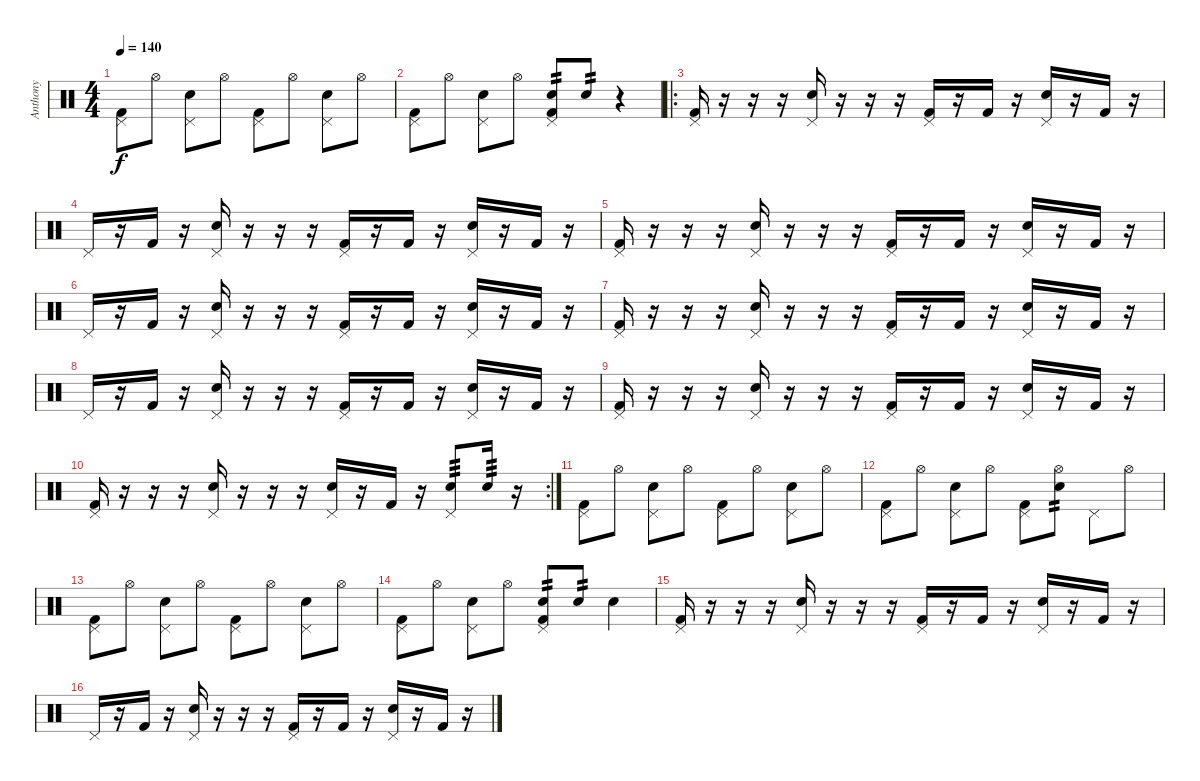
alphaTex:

\track ("Anthony" "Anthony") {instrument percussion}
\staff {score}
\articulation defaults
\ts (4 4)
\tempo 140
\clef neutral
\ks c
("Pedal Hi-Hat (hit)" "Kick (hit) 2").8{dy f} "Hi-Hat (open)".8 ("Pedal Hi-Hat (hit)" "Snare (hit) 2").8 "Hi-Hat (open)".8 ("Pedal Hi-Hat (hit)" "Kick (hit) 2").8 "Hi-Hat (open)".8 ("Pedal Hi-Hat (hit)" "Snare (hit) 2").8 "Hi-Hat (open)".8 |
("Pedal Hi-Hat (hit)" "Kick (hit) 2").8 "Hi-Hat (open)".8 ("Pedal Hi-Hat (hit)" "Snare (hit) 2").8 "Hi-Hat (open)".8 ("Pedal Hi-Hat (hit)" "Snare (hit) 2" "Kick (hit) 2").8{tp 2} "Snare (hit) 2".8{tp 2} r.4 |
\ro
("Pedal Hi-Hat (hit)" "Kick (hit) 2").16 r.16 r.16 r.16 ("Pedal Hi-Hat (hit)" "Snare (hit) 2").16 r.16 r.16 r.16 ("Pedal Hi-Hat (hit)" "Kick (hit) 2").16 r.16 "Kick (hit) 2".16 r.16 ("Pedal Hi-Hat (hit)" "Snare (hit) 2").16 r.16 "Kick (hit) 2".16 r.16 |
"Pedal Hi-Hat (hit)".16 r.16 "Kick (hit) 2".16 r.16 ("Pedal Hi-Hat (hit)" "Snare (hit) 2").16 r.16 r.16 r.16 ("Pedal Hi-Hat (hit)" "Kick (hit) 2").16 r.16 "Kick (hit) 2".16 r.16 ("Pedal Hi-Hat (hit)" "Snare (hit) 2").16 r.16 "Kick (hit) 2".16 r.16 |
("Pedal Hi-Hat (hit)" "Kick (hit) 2").16 r.16 r.16 r.16 ("Pedal Hi-Hat (hit)" "Snare (hit) 2").16 r.16 r.16 r.16 ("Pedal Hi-Hat (hit)" "Kick (hit) 2").16 r.16 "Kick (hit) 2".16 r.16 ("Pedal Hi-Hat (hit)" "Snare (hit) 2").16 r.16 "Kick (hit) 2".16 r.16 |
"Pedal Hi-Hat (hit)".16 r.16 "Kick (hit) 2".16 r.16 ("Pedal Hi-Hat (hit)" "Snare (hit) 2").16 r.16 r.16 r.16 ("Pedal Hi-Hat (hit)" "Kick (hit) 2").16 r.16 "Kick (hit) 2".16 r.16 ("Pedal Hi-Hat (hit)" "Snare (hit) 2").16 r.16 "Kick (hit) 2".16 r.16 |
("Pedal Hi-Hat (hit)" "Kick (hit) 2").16 r.16 r.16 r.16 ("Pedal Hi-Hat (hit)" "Snare (hit) 2").16 r.16 r.16 r.16 ("Pedal Hi-Hat (hit)" "Kick (hit) 2").16 r.16 "Kick (hit) 2".16 r.16 ("Pedal Hi-Hat (hit)" "Snare (hit) 2").16 r.16 "Kick (hit) 2".16 r.16 |
"Pedal Hi-Hat (hit)".16 r.16 "Kick (hit) 2".16 r.16 ("Pedal Hi-Hat (hit)" "Snare (hit) 2").16 r.16 r.16 r.16 ("Pedal Hi-Hat (hit)" "Kick (hit) 2").16 r.16 "Kick (hit) 2".16 r.16 ("Pedal Hi-Hat (hit)" "Snare (hit) 2").16 r.16 "Kick (hit) 2".16 r.16 |
("Pedal Hi-Hat (hit)" "Kick (hit) 2").16 r.16 r.16 r.16 ("Pedal Hi-Hat (hit)" "Snare (hit) 2").16 r.16 r.16 r.16 ("Pedal Hi-Hat (hit)" "Kick (hit) 2").16 r.16 "Kick (hit) 2".16 r.16 ("Pedal Hi-Hat (hit)" "Snare (hit) 2").16 r.16 "Kick (hit) 2".16 r.16 |
\rc 2
("Pedal Hi-Hat (hit)" "Kick (hit) 2").16 r.16 r.16 r.16 ("Pedal Hi-Hat (hit)" "Snare (hit) 2").16 r.16 r.16 r.16 ("Pedal Hi-Hat (hit)" "Snare (hit) 2").16 r.16 "Kick (hit) 2".16 r.16 ("Pedal Hi-Hat (hit)" "Snare (hit) 2").8{tp 3} "Snare (hit) 2".16{tp 3} r.16 |
("Pedal Hi-Hat (hit)" "Kick (hit) 2").8 "Hi-Hat (open)".8 ("Pedal Hi-Hat (hit)" "Snare (hit) 2").8 "Hi-Hat (open)".8 ("Pedal Hi-Hat (hit)" "Kick (hit) 2").8 "Hi-Hat (open)".8 ("Pedal Hi-Hat (hit)" "Snare (hit) 2").8 "Hi-Hat (open)".8 |
("Pedal Hi-Hat (hit)" "Kick (hit) 2").8 "Hi-Hat (open)".8 ("Pedal Hi-Hat (hit)" "Snare (hit) 2").8 "Hi-Hat (open)".8 ("Pedal Hi-Hat (hit)" "Kick (hit) 2").8 ("Hi-Hat (open)" "Snare (hit) 2").8{tp 2} "Pedal Hi-Hat (hit)".8 "Hi-Hat (open)".8 |
("Pedal Hi-Hat (hit)" "Kick (hit) 2").8 "Hi-Hat (open)".8 ("Pedal Hi-Hat (hit)" "Snare (hit) 2").8 "Hi-Hat (open)".8 ("Pedal Hi-Hat (hit)" "Kick (hit) 2").8 "Hi-Hat (open)".8 ("Pedal Hi-Hat (hit)" "Snare (hit) 2").8 "Hi-Hat (open)".8 |
("Pedal Hi-Hat (hit)" "Kick (hit) 2").8 "Hi-Hat (open)".8 ("Pedal Hi-Hat (hit)" "Snare (hit) 2").8 "Hi-Hat (open)".8 ("Pedal Hi-Hat (hit)" "Snare (hit) 2" "Kick (hit) 2").8{tp 2} "Snare (hit) 2".8{tp 2} "Snare (hit) 2".4 |
("Pedal Hi-Hat (hit)" "Kick (hit) 2").16 r.16 r.16 r.16 ("Pedal Hi-Hat (hit)" "Snare (hit) 2").16 r.16 r.16 r.16 ("Pedal Hi-Hat (hit)" "Kick (hit) 2").16 r.16 "Kick (hit) 2".16 r.16 ("Pedal Hi-Hat (hit)" "Snare (hit) 2").16 r.16 "Kick (hit) 2".16 r.16 |
"Pedal Hi-Hat (hit)".16 r.16 "Kick (hit) 2".16 r.16 ("Pedal Hi-Hat (hit)" "Snare (hit) 2").16 r.16 r.16 r.16 ("Pedal Hi-Hat (hit)" "Kick (hit) 2").16 r.16 "Kick (hit) 2".16 r.16 ("Pedal Hi-Hat (hit)" "Snare (hit) 2").16 r.16 "Kick (hit) 2".16 r.16
